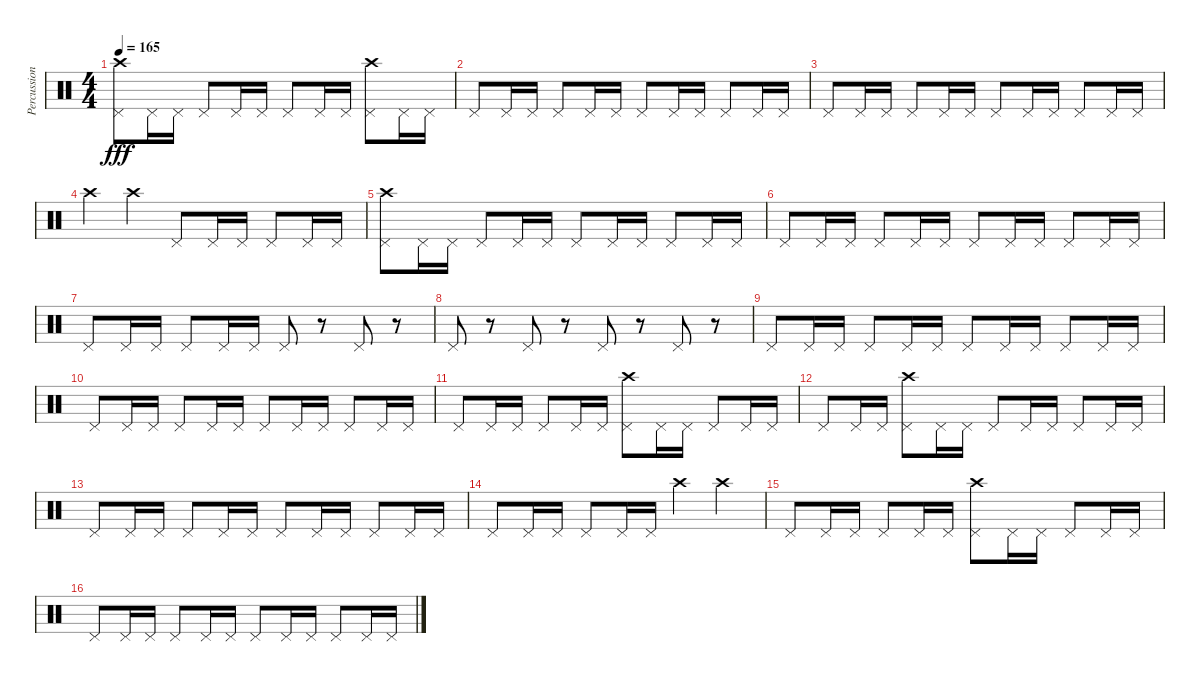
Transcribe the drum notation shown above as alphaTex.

\track ("Percussion" "Percussion") {instrument percussion}
\staff {score}
\articulation defaults
\ts (4 4)
\tempo 165
\clef neutral
\ks c
("Crash high (hit)" "Pedal Hi-Hat (hit)").8{dy fff} "Pedal Hi-Hat (hit)".16 "Pedal Hi-Hat (hit)".16 "Pedal Hi-Hat (hit)".8 "Pedal Hi-Hat (hit)".16 "Pedal Hi-Hat (hit)".16 "Pedal Hi-Hat (hit)".8 "Pedal Hi-Hat (hit)".16 "Pedal Hi-Hat (hit)".16 ("Crash high (hit)" "Pedal Hi-Hat (hit)").8 "Pedal Hi-Hat (hit)".16 "Pedal Hi-Hat (hit)".16 |
"Pedal Hi-Hat (hit)".8 "Pedal Hi-Hat (hit)".16 "Pedal Hi-Hat (hit)".16 "Pedal Hi-Hat (hit)".8 "Pedal Hi-Hat (hit)".16 "Pedal Hi-Hat (hit)".16 "Pedal Hi-Hat (hit)".8 "Pedal Hi-Hat (hit)".16 "Pedal Hi-Hat (hit)".16 "Pedal Hi-Hat (hit)".8 "Pedal Hi-Hat (hit)".16 "Pedal Hi-Hat (hit)".16 |
"Pedal Hi-Hat (hit)".8 "Pedal Hi-Hat (hit)".16 "Pedal Hi-Hat (hit)".16 "Pedal Hi-Hat (hit)".8 "Pedal Hi-Hat (hit)".16 "Pedal Hi-Hat (hit)".16 "Pedal Hi-Hat (hit)".8 "Pedal Hi-Hat (hit)".16 "Pedal Hi-Hat (hit)".16 "Pedal Hi-Hat (hit)".8 "Pedal Hi-Hat (hit)".16 "Pedal Hi-Hat (hit)".16 |
"Crash high (hit)".4 "Crash high (hit)".4 "Pedal Hi-Hat (hit)".8 "Pedal Hi-Hat (hit)".16 "Pedal Hi-Hat (hit)".16 "Pedal Hi-Hat (hit)".8 "Pedal Hi-Hat (hit)".16 "Pedal Hi-Hat (hit)".16 |
("Crash high (hit)" "Pedal Hi-Hat (hit)").8 "Pedal Hi-Hat (hit)".16 "Pedal Hi-Hat (hit)".16 "Pedal Hi-Hat (hit)".8 "Pedal Hi-Hat (hit)".16 "Pedal Hi-Hat (hit)".16 "Pedal Hi-Hat (hit)".8 "Pedal Hi-Hat (hit)".16 "Pedal Hi-Hat (hit)".16 "Pedal Hi-Hat (hit)".8 "Pedal Hi-Hat (hit)".16 "Pedal Hi-Hat (hit)".16 |
"Pedal Hi-Hat (hit)".8 "Pedal Hi-Hat (hit)".16 "Pedal Hi-Hat (hit)".16 "Pedal Hi-Hat (hit)".8 "Pedal Hi-Hat (hit)".16 "Pedal Hi-Hat (hit)".16 "Pedal Hi-Hat (hit)".8 "Pedal Hi-Hat (hit)".16 "Pedal Hi-Hat (hit)".16 "Pedal Hi-Hat (hit)".8 "Pedal Hi-Hat (hit)".16 "Pedal Hi-Hat (hit)".16 |
"Pedal Hi-Hat (hit)".8 "Pedal Hi-Hat (hit)".16 "Pedal Hi-Hat (hit)".16 "Pedal Hi-Hat (hit)".8 "Pedal Hi-Hat (hit)".16 "Pedal Hi-Hat (hit)".16 "Pedal Hi-Hat (hit)".8 r.8 "Pedal Hi-Hat (hit)".8 r.8 |
"Pedal Hi-Hat (hit)".8 r.8 "Pedal Hi-Hat (hit)".8 r.8 "Pedal Hi-Hat (hit)".8 r.8 "Pedal Hi-Hat (hit)".8 r.8 |
"Pedal Hi-Hat (hit)".8 "Pedal Hi-Hat (hit)".16 "Pedal Hi-Hat (hit)".16 "Pedal Hi-Hat (hit)".8 "Pedal Hi-Hat (hit)".16 "Pedal Hi-Hat (hit)".16 "Pedal Hi-Hat (hit)".8 "Pedal Hi-Hat (hit)".16 "Pedal Hi-Hat (hit)".16 "Pedal Hi-Hat (hit)".8 "Pedal Hi-Hat (hit)".16 "Pedal Hi-Hat (hit)".16 |
"Pedal Hi-Hat (hit)".8 "Pedal Hi-Hat (hit)".16 "Pedal Hi-Hat (hit)".16 "Pedal Hi-Hat (hit)".8 "Pedal Hi-Hat (hit)".16 "Pedal Hi-Hat (hit)".16 "Pedal Hi-Hat (hit)".8 "Pedal Hi-Hat (hit)".16 "Pedal Hi-Hat (hit)".16 "Pedal Hi-Hat (hit)".8 "Pedal Hi-Hat (hit)".16 "Pedal Hi-Hat (hit)".16 |
"Pedal Hi-Hat (hit)".8 "Pedal Hi-Hat (hit)".16 "Pedal Hi-Hat (hit)".16 "Pedal Hi-Hat (hit)".8 "Pedal Hi-Hat (hit)".16 "Pedal Hi-Hat (hit)".16 ("Crash high (hit)" "Pedal Hi-Hat (hit)").8 "Pedal Hi-Hat (hit)".16 "Pedal Hi-Hat (hit)".16 "Pedal Hi-Hat (hit)".8 "Pedal Hi-Hat (hit)".16 "Pedal Hi-Hat (hit)".16 |
"Pedal Hi-Hat (hit)".8 "Pedal Hi-Hat (hit)".16 "Pedal Hi-Hat (hit)".16 ("Crash high (hit)" "Pedal Hi-Hat (hit)").8 "Pedal Hi-Hat (hit)".16 "Pedal Hi-Hat (hit)".16 "Pedal Hi-Hat (hit)".8 "Pedal Hi-Hat (hit)".16 "Pedal Hi-Hat (hit)".16 "Pedal Hi-Hat (hit)".8 "Pedal Hi-Hat (hit)".16 "Pedal Hi-Hat (hit)".16 |
"Pedal Hi-Hat (hit)".8 "Pedal Hi-Hat (hit)".16 "Pedal Hi-Hat (hit)".16 "Pedal Hi-Hat (hit)".8 "Pedal Hi-Hat (hit)".16 "Pedal Hi-Hat (hit)".16 "Pedal Hi-Hat (hit)".8 "Pedal Hi-Hat (hit)".16 "Pedal Hi-Hat (hit)".16 "Pedal Hi-Hat (hit)".8 "Pedal Hi-Hat (hit)".16 "Pedal Hi-Hat (hit)".16 |
"Pedal Hi-Hat (hit)".8 "Pedal Hi-Hat (hit)".16 "Pedal Hi-Hat (hit)".16 "Pedal Hi-Hat (hit)".8 "Pedal Hi-Hat (hit)".16 "Pedal Hi-Hat (hit)".16 "Crash high (hit)".4 "Crash high (hit)".4 |
"Pedal Hi-Hat (hit)".8 "Pedal Hi-Hat (hit)".16 "Pedal Hi-Hat (hit)".16 "Pedal Hi-Hat (hit)".8 "Pedal Hi-Hat (hit)".16 "Pedal Hi-Hat (hit)".16 ("Crash high (hit)" "Pedal Hi-Hat (hit)").8 "Pedal Hi-Hat (hit)".16 "Pedal Hi-Hat (hit)".16 "Pedal Hi-Hat (hit)".8 "Pedal Hi-Hat (hit)".16 "Pedal Hi-Hat (hit)".16 |
"Pedal Hi-Hat (hit)".8 "Pedal Hi-Hat (hit)".16 "Pedal Hi-Hat (hit)".16 "Pedal Hi-Hat (hit)".8 "Pedal Hi-Hat (hit)".16 "Pedal Hi-Hat (hit)".16 "Pedal Hi-Hat (hit)".8 "Pedal Hi-Hat (hit)".16 "Pedal Hi-Hat (hit)".16 "Pedal Hi-Hat (hit)".8 "Pedal Hi-Hat (hit)".16 "Pedal Hi-Hat (hit)".16
